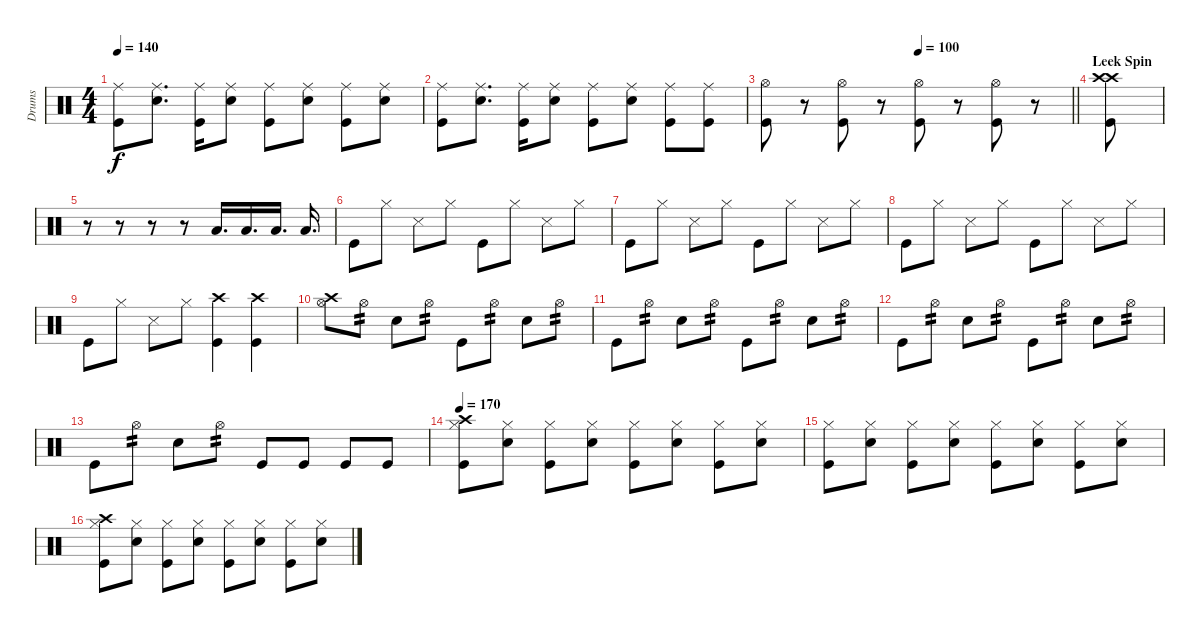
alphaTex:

\track ("Drums" "Drums") {instrument percussion}
\staff {score}
\articulation defaults
\ts (4 4)
\tempo 140
\clef neutral
\ks c
("Kick (hit)" "Ride (middle)").8{dy f} ("Electric Snare (hit)" "Ride (middle)").8{d} ("Kick (hit)" "Ride (middle)").16 ("Electric Snare (hit)" "Ride (middle)").8 ("Kick (hit)" "Ride (middle)").8 ("Electric Snare (hit)" "Ride (middle)").8 ("Kick (hit)" "Ride (middle)").8 ("Electric Snare (hit)" "Ride (middle)").8 |
("Kick (hit)" "Ride (middle)").8 ("Electric Snare (hit)" "Ride (middle)").8{d} ("Kick (hit)" "Ride (middle)").16 ("Electric Snare (hit)" "Ride (middle)").8 ("Kick (hit)" "Ride (middle)").8 ("Electric Snare (hit)" "Ride (middle)").8 ("Kick (hit)" "Ride (middle)").8 ("Kick (hit)" "Ride (middle)").8 |
\tempo (100 0.5)
\barLineRight lightlight
("Hi-Hat (open)" "Kick (hit)").8 r.8 ("Hi-Hat (open)" "Kick (hit)").8 r.8 ("Hi-Hat (open)" "Kick (hit)").8 r.8 ("Hi-Hat (open)" "Kick (hit)").8 r.8 |
\section ("" "Leek Spin")
("Kick (hit)" "Crash high (hit)" "Crash high (hit)").8 |
r.8 r.8 r.8 r.8 "Low Tom (hit)".16{d} "Low Tom (hit)".16{d} "Low Tom (hit)".16{d} "Low Tom (hit)".16{d} |
"Kick (hit)".8 "Hi-Hat (closed)".8 "Snare (side stick) 3".8 "Hi-Hat (closed)".8 "Kick (hit)".8 "Hi-Hat (closed)".8 "Snare (side stick) 3".8 "Hi-Hat (closed)".8 |
"Kick (hit)".8 "Hi-Hat (closed)".8 "Snare (side stick) 3".8 "Hi-Hat (closed)".8 "Kick (hit)".8 "Hi-Hat (closed)".8 "Snare (side stick) 3".8 "Hi-Hat (closed)".8 |
"Kick (hit)".8 "Hi-Hat (closed)".8 "Snare (side stick) 3".8 "Hi-Hat (closed)".8 "Kick (hit)".8 "Hi-Hat (closed)".8 "Snare (side stick) 3".8 "Hi-Hat (closed)".8 |
"Kick (hit)".8 "Hi-Hat (closed)".8 "Snare (side stick) 3".8 "Hi-Hat (closed)".8 ("Crash high (hit)" "Kick (hit)").4 ("Crash high (hit)" "Kick (hit)").4 |
("Crash high (hit)" "Hi-Hat (open)").8 "Hi-Hat (open)".8{tp 2} "Electric Snare (hit)".8 "Hi-Hat (open)".8{tp 2} "Kick (hit)".8 "Hi-Hat (open)".8{tp 2} "Electric Snare (hit)".8 "Hi-Hat (open)".8{tp 2} |
"Kick (hit)".8 "Hi-Hat (open)".8{tp 2} "Electric Snare (hit)".8 "Hi-Hat (open)".8{tp 2} "Kick (hit)".8 "Hi-Hat (open)".8{tp 2} "Electric Snare (hit)".8 "Hi-Hat (open)".8{tp 2} |
"Kick (hit)".8 "Hi-Hat (open)".8{tp 2} "Electric Snare (hit)".8 "Hi-Hat (open)".8{tp 2} "Kick (hit)".8 "Hi-Hat (open)".8{tp 2} "Electric Snare (hit)".8 "Hi-Hat (open)".8{tp 2} |
"Kick (hit)".8 "Hi-Hat (open)".8{tp 2} "Electric Snare (hit)".8 "Hi-Hat (open)".8{tp 2} "Kick (hit)".8 "Kick (hit)".8 "Kick (hit)".8 "Kick (hit)".8 |
\tempo 170
("Hi-Hat (closed)" "Kick (hit)" "Crash high (hit)").8 ("Hi-Hat (closed)" "Electric Snare (hit)").8 ("Hi-Hat (closed)" "Kick (hit)").8 ("Hi-Hat (closed)" "Electric Snare (hit)").8 ("Hi-Hat (closed)" "Kick (hit)").8 ("Hi-Hat (closed)" "Electric Snare (hit)").8 ("Hi-Hat (closed)" "Kick (hit)").8 ("Hi-Hat (closed)" "Electric Snare (hit)").8 |
("Hi-Hat (closed)" "Kick (hit)").8 ("Hi-Hat (closed)" "Electric Snare (hit)").8 ("Hi-Hat (closed)" "Kick (hit)").8 ("Hi-Hat (closed)" "Electric Snare (hit)").8 ("Hi-Hat (closed)" "Kick (hit)").8 ("Hi-Hat (closed)" "Electric Snare (hit)").8 ("Hi-Hat (closed)" "Kick (hit)").8 ("Hi-Hat (closed)" "Electric Snare (hit)").8 |
("Hi-Hat (closed)" "Kick (hit)" "Crash high (hit)").8 ("Hi-Hat (closed)" "Electric Snare (hit)").8 ("Hi-Hat (closed)" "Kick (hit)").8 ("Hi-Hat (closed)" "Electric Snare (hit)").8 ("Hi-Hat (closed)" "Kick (hit)").8 ("Hi-Hat (closed)" "Electric Snare (hit)").8 ("Hi-Hat (closed)" "Kick (hit)").8 ("Hi-Hat (closed)" "Electric Snare (hit)").8
